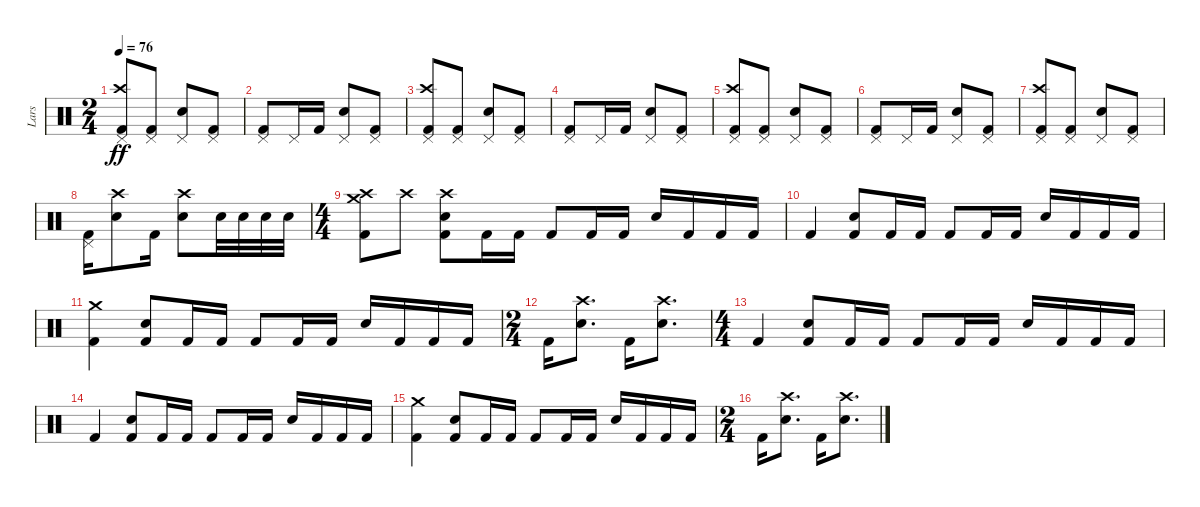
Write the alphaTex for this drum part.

\track ("Lars" "Lars") {instrument percussion}
\staff {score}
\articulation defaults
\ts (2 4)
\tempo 76
\clef neutral
\ks c
("Pedal Hi-Hat (hit)" "Crash high (hit)" "Kick (hit) 2").8{dy ff} ("Pedal Hi-Hat (hit)" "Kick (hit) 2").8 ("Pedal Hi-Hat (hit)" "Snare (hit) 2").8 ("Pedal Hi-Hat (hit)" "Kick (hit) 2").8 |
("Pedal Hi-Hat (hit)" "Kick (hit) 2").8 "Pedal Hi-Hat (hit)".16 "Kick (hit) 2".16 ("Pedal Hi-Hat (hit)" "Snare (hit) 2").8 ("Pedal Hi-Hat (hit)" "Kick (hit) 2").8 |
("Pedal Hi-Hat (hit)" "Crash high (hit)" "Kick (hit) 2").8 ("Pedal Hi-Hat (hit)" "Kick (hit) 2").8 ("Pedal Hi-Hat (hit)" "Snare (hit) 2").8 ("Pedal Hi-Hat (hit)" "Kick (hit) 2").8 |
("Pedal Hi-Hat (hit)" "Kick (hit) 2").8 "Pedal Hi-Hat (hit)".16 "Kick (hit) 2".16 ("Pedal Hi-Hat (hit)" "Snare (hit) 2").8 ("Pedal Hi-Hat (hit)" "Kick (hit) 2").8 |
("Pedal Hi-Hat (hit)" "Crash high (hit)" "Kick (hit) 2").8 ("Pedal Hi-Hat (hit)" "Kick (hit) 2").8 ("Pedal Hi-Hat (hit)" "Snare (hit) 2").8 ("Pedal Hi-Hat (hit)" "Kick (hit) 2").8 |
("Pedal Hi-Hat (hit)" "Kick (hit) 2").8 "Pedal Hi-Hat (hit)".16 "Kick (hit) 2".16 ("Pedal Hi-Hat (hit)" "Snare (hit) 2").8 ("Pedal Hi-Hat (hit)" "Kick (hit) 2").8 |
("Pedal Hi-Hat (hit)" "Crash high (hit)" "Kick (hit) 2").8 ("Pedal Hi-Hat (hit)" "Kick (hit) 2").8 ("Pedal Hi-Hat (hit)" "Snare (hit) 2").8 ("Pedal Hi-Hat (hit)" "Kick (hit) 2").8 |
("Pedal Hi-Hat (hit)" "Kick (hit) 2").16 ("Crash high (hit)" "Snare (hit) 2").8 "Kick (hit) 2".16 ("Crash high (hit)" "Snare (hit) 2").8 "Snare (hit) 2".32 "Snare (hit) 2".32 "Snare (hit) 2".32 "Snare (hit) 2".32 |
\ts (4 4)
("Crash medium (hit)" "Crash high (hit)" "Kick (hit) 2").8 "Crash high (hit)".8 ("Crash high (hit)" "Snare (hit) 2" "Kick (hit) 2").8 "Kick (hit) 2".16 "Kick (hit) 2".16 "Kick (hit) 2".8 "Kick (hit) 2".16 "Kick (hit) 2".16 "Snare (hit) 2".16 "Kick (hit) 2".16 "Kick (hit) 2".16 "Kick (hit) 2".16 |
"Kick (hit) 2".4 ("Snare (hit) 2" "Kick (hit) 2").8 "Kick (hit) 2".16 "Kick (hit) 2".16 "Kick (hit) 2".8 "Kick (hit) 2".16 "Kick (hit) 2".16 "Snare (hit) 2".16 "Kick (hit) 2".16 "Kick (hit) 2".16 "Kick (hit) 2".16 |
("Crash medium (hit)" "Kick (hit) 2").4 ("Snare (hit) 2" "Kick (hit) 2").8 "Kick (hit) 2".16 "Kick (hit) 2".16 "Kick (hit) 2".8 "Kick (hit) 2".16 "Kick (hit) 2".16 "Snare (hit) 2".16 "Kick (hit) 2".16 "Kick (hit) 2".16 "Kick (hit) 2".16 |
\ts (2 4)
"Kick (hit) 2".16 ("Crash high (hit)" "Snare (hit) 2").8{d} "Kick (hit) 2".16 ("Crash high (hit)" "Snare (hit) 2").8{d} |
\ts (4 4)
"Kick (hit) 2".4 ("Snare (hit) 2" "Kick (hit) 2").8 "Kick (hit) 2".16 "Kick (hit) 2".16 "Kick (hit) 2".8 "Kick (hit) 2".16 "Kick (hit) 2".16 "Snare (hit) 2".16 "Kick (hit) 2".16 "Kick (hit) 2".16 "Kick (hit) 2".16 |
"Kick (hit) 2".4 ("Snare (hit) 2" "Kick (hit) 2").8 "Kick (hit) 2".16 "Kick (hit) 2".16 "Kick (hit) 2".8 "Kick (hit) 2".16 "Kick (hit) 2".16 "Snare (hit) 2".16 "Kick (hit) 2".16 "Kick (hit) 2".16 "Kick (hit) 2".16 |
("Crash medium (hit)" "Kick (hit) 2").4 ("Snare (hit) 2" "Kick (hit) 2").8 "Kick (hit) 2".16 "Kick (hit) 2".16 "Kick (hit) 2".8 "Kick (hit) 2".16 "Kick (hit) 2".16 "Snare (hit) 2".16 "Kick (hit) 2".16 "Kick (hit) 2".16 "Kick (hit) 2".16 |
\ts (2 4)
"Kick (hit) 2".16 ("Crash high (hit)" "Snare (hit) 2").8{d} "Kick (hit) 2".16 ("Crash high (hit)" "Snare (hit) 2").8{d}
